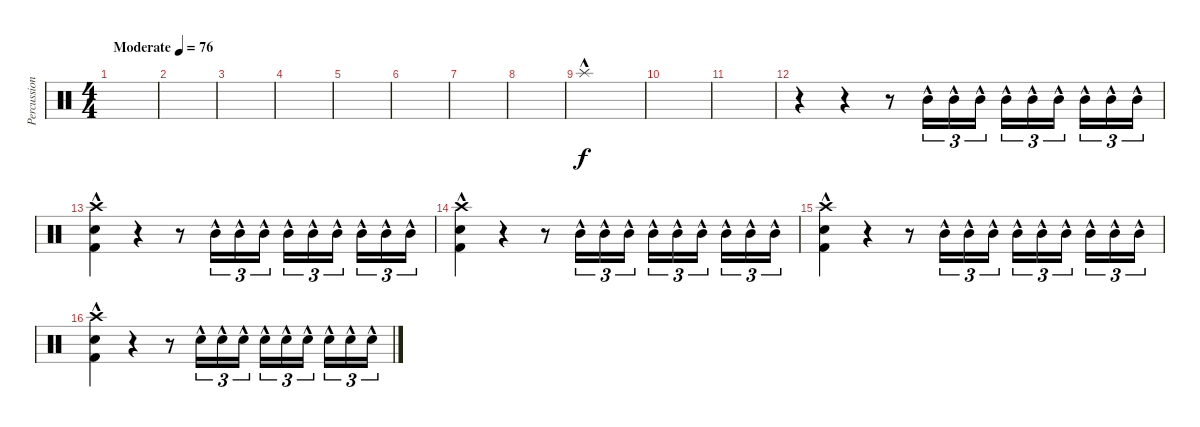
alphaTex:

\track ("Percussion" "Percussion") {instrument percussion}
\staff {score}
\articulation defaults
\ts (4 4)
\tempo (76 "Moderate")
\clef neutral
\ks c
|
|
|
|
|
|
|
|
"Splash (hit)"{hac}.1 |
|
|
r.4 r.4 r.8 "Mid Tom (hit)"{hac}.16{tu (3 2)} "Mid Tom (hit)"{hac}.16{tu (3 2)} "Mid Tom (hit)"{hac}.16{tu (3 2)} "Mid Tom (hit)"{hac}.16{tu (3 2)} "Mid Tom (hit)"{hac}.16{tu (3 2)} "Mid Tom (hit)"{hac}.16{tu (3 2) beam splitsecondary} "Mid Tom (hit)"{hac}.16{tu (3 2)} "Mid Tom (hit)"{hac}.16{tu (3 2)} "Mid Tom (hit)"{hac}.16{tu (3 2)} |
("Electric Snare (hit)"{hac} "Kick (hit) 2"{hac} "Crash high (hit)"{hac}).4 r.4 r.8 "Mid Tom (hit)"{hac}.16{tu (3 2)} "Mid Tom (hit)"{hac}.16{tu (3 2)} "Mid Tom (hit)"{hac}.16{tu (3 2)} "Mid Tom (hit)"{hac}.16{tu (3 2)} "Mid Tom (hit)"{hac}.16{tu (3 2)} "Mid Tom (hit)"{hac}.16{tu (3 2) beam splitsecondary} "Mid Tom (hit)"{hac}.16{tu (3 2)} "Mid Tom (hit)"{hac}.16{tu (3 2)} "Mid Tom (hit)"{hac}.16{tu (3 2)} |
("Electric Snare (hit)"{hac} "Kick (hit) 2"{hac} "Crash high (hit)"{hac}).4 r.4 r.8 "Mid Tom (hit)"{hac}.16{tu (3 2)} "Mid Tom (hit)"{hac}.16{tu (3 2)} "Mid Tom (hit)"{hac}.16{tu (3 2)} "Mid Tom (hit)"{hac}.16{tu (3 2)} "Mid Tom (hit)"{hac}.16{tu (3 2)} "Mid Tom (hit)"{hac}.16{tu (3 2) beam splitsecondary} "Mid Tom (hit)"{hac}.16{tu (3 2)} "Mid Tom (hit)"{hac}.16{tu (3 2)} "Mid Tom (hit)"{hac}.16{tu (3 2)} |
("Electric Snare (hit)"{hac} "Kick (hit) 2"{hac} "Crash high (hit)"{hac}).4 r.4 r.8 "Mid Tom (hit)"{hac}.16{tu (3 2)} "Mid Tom (hit)"{hac}.16{tu (3 2)} "Mid Tom (hit)"{hac}.16{tu (3 2)} "Mid Tom (hit)"{hac}.16{tu (3 2)} "Mid Tom (hit)"{hac}.16{tu (3 2)} "Mid Tom (hit)"{hac}.16{tu (3 2) beam splitsecondary} "Mid Tom (hit)"{hac}.16{tu (3 2)} "Mid Tom (hit)"{hac}.16{tu (3 2)} "Mid Tom (hit)"{hac}.16{tu (3 2)} |
("Electric Snare (hit)"{hac} "Kick (hit) 2"{hac} "Crash high (hit)"{hac}).4 r.4 r.8 "Electric Snare (hit)"{hac}.16{tu (3 2)} "Electric Snare (hit)"{hac}.16{tu (3 2)} "Electric Snare (hit)"{hac}.16{tu (3 2)} "Electric Snare (hit)"{hac}.16{tu (3 2)} "Electric Snare (hit)"{hac}.16{tu (3 2)} "Electric Snare (hit)"{hac}.16{tu (3 2) beam splitsecondary} "Electric Snare (hit)"{hac}.16{tu (3 2)} "Electric Snare (hit)"{hac}.16{tu (3 2)} "Electric Snare (hit)"{hac}.16{tu (3 2)}
